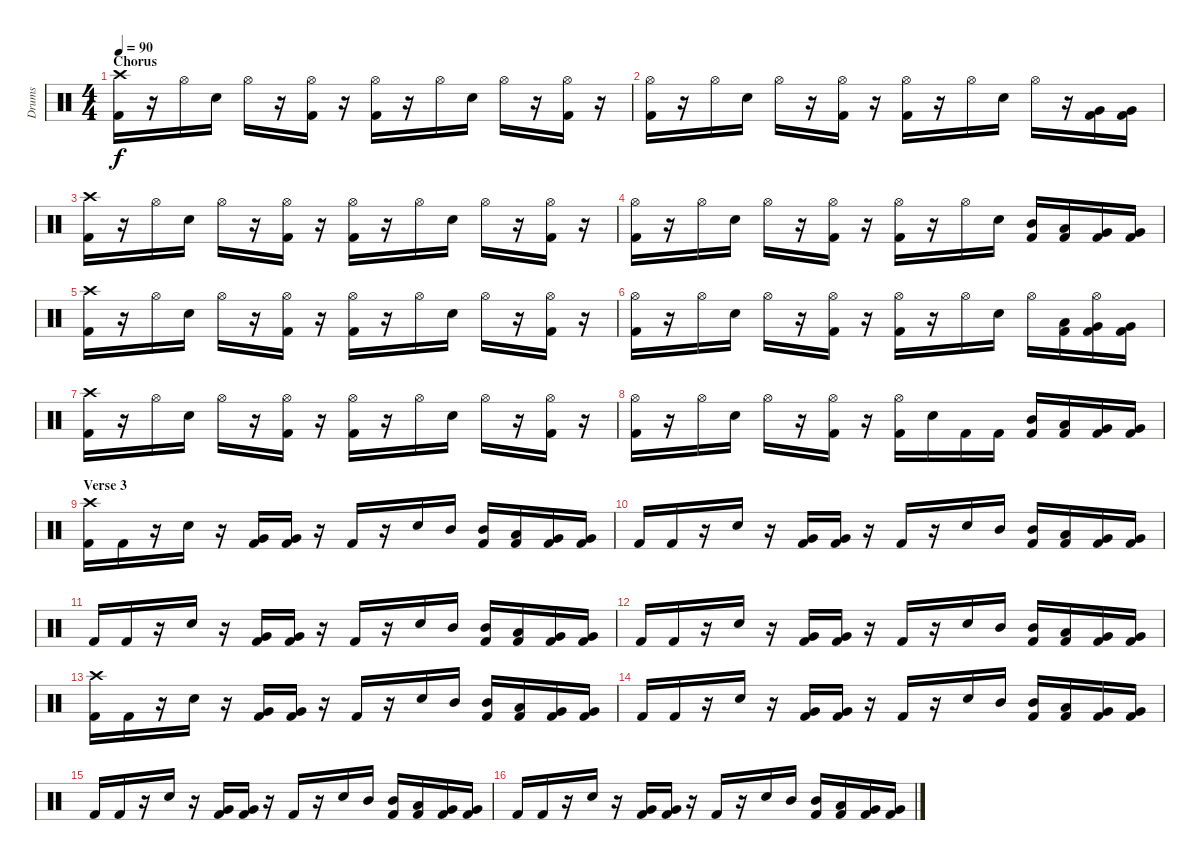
\track ("Drums" "Drums") {instrument percussion}
\staff {score}
\articulation defaults
\ts (4 4)
\section ("" "Chorus")
\tempo 90
\clef neutral
\ks c
("Kick (hit) 2" "Crash high (hit)").16{dy f} r.16 "Hi-Hat (open)".16 "Snare (hit) 2".16 "Hi-Hat (open)".16 r.16 ("Kick (hit) 2" "Hi-Hat (open)").16 r.16 ("Kick (hit) 2" "Hi-Hat (open)").16 r.16 "Hi-Hat (open)".16 "Snare (hit) 2".16 "Hi-Hat (open)".16 r.16 ("Kick (hit) 2" "Hi-Hat (open)").16 r.16 |
("Kick (hit) 2" "Hi-Hat (open)").16 r.16 "Hi-Hat (open)".16 "Snare (hit) 2".16 "Hi-Hat (open)".16 r.16 ("Kick (hit) 2" "Hi-Hat (open)").16 r.16 ("Kick (hit) 2" "Hi-Hat (open)").16 r.16 "Hi-Hat (open)".16 "Snare (hit) 2".16 "Hi-Hat (open)".16 r.16 ("Kick (hit) 2" "Very Low Tom (hit)").16 ("Kick (hit) 2" "Very Low Tom (hit)").16 |
("Kick (hit) 2" "Crash high (hit)").16 r.16 "Hi-Hat (open)".16 "Snare (hit) 2".16 "Hi-Hat (open)".16 r.16 ("Kick (hit) 2" "Hi-Hat (open)").16 r.16 ("Kick (hit) 2" "Hi-Hat (open)").16 r.16 "Hi-Hat (open)".16 "Snare (hit) 2".16 "Hi-Hat (open)".16 r.16 ("Kick (hit) 2" "Hi-Hat (open)").16 r.16 |
("Kick (hit) 2" "Hi-Hat (open)").16 r.16 "Hi-Hat (open)".16 "Snare (hit) 2".16 "Hi-Hat (open)".16 r.16 ("Kick (hit) 2" "Hi-Hat (open)").16 r.16 ("Kick (hit) 2" "Hi-Hat (open)").16 r.16 "Hi-Hat (open)".16 "Snare (hit) 2".16 ("Kick (hit) 2" "Mid Tom (hit)").16 ("Kick (hit) 2" "Low Tom (hit)").16 ("Kick (hit) 2" "Very Low Tom (hit)").16 ("Kick (hit) 2" "Very Low Tom (hit)").16 |
("Kick (hit) 2" "Crash high (hit)").16 r.16 "Hi-Hat (open)".16 "Snare (hit) 2".16 "Hi-Hat (open)".16 r.16 ("Kick (hit) 2" "Hi-Hat (open)").16 r.16 ("Kick (hit) 2" "Hi-Hat (open)").16 r.16 "Hi-Hat (open)".16 "Snare (hit) 2".16 "Hi-Hat (open)".16 r.16 ("Kick (hit) 2" "Hi-Hat (open)").16 r.16 |
("Kick (hit) 2" "Hi-Hat (open)").16 r.16 "Hi-Hat (open)".16 "Snare (hit) 2".16 "Hi-Hat (open)".16 r.16 ("Kick (hit) 2" "Hi-Hat (open)").16 r.16 ("Kick (hit) 2" "Hi-Hat (open)").16 r.16 "Hi-Hat (open)".16 "Snare (hit) 2".16 "Hi-Hat (open)".16 ("Kick (hit) 2" "Low Tom (hit)").16 ("Kick (hit) 2" "Very Low Tom (hit)" "Hi-Hat (open)").16 ("Kick (hit) 2" "Very Low Tom (hit)").16 |
("Kick (hit) 2" "Crash high (hit)").16 r.16 "Hi-Hat (open)".16 "Snare (hit) 2".16 "Hi-Hat (open)".16 r.16 ("Kick (hit) 2" "Hi-Hat (open)").16 r.16 ("Kick (hit) 2" "Hi-Hat (open)").16 r.16 "Hi-Hat (open)".16 "Snare (hit) 2".16 "Hi-Hat (open)".16 r.16 ("Kick (hit) 2" "Hi-Hat (open)").16 r.16 |
("Kick (hit) 2" "Hi-Hat (open)").16 r.16 "Hi-Hat (open)".16 "Snare (hit) 2".16 "Hi-Hat (open)".16 r.16 ("Kick (hit) 2" "Hi-Hat (open)").16 r.16 ("Kick (hit) 2" "Hi-Hat (open)").16 "Snare (hit) 2".16 "Kick (hit) 2".16 "Kick (hit) 2".16 ("Kick (hit) 2" "Mid Tom (hit)").16 ("Kick (hit) 2" "Low Tom (hit)").16 ("Kick (hit) 2" "Very Low Tom (hit)").16 ("Kick (hit) 2" "Very Low Tom (hit)").16 |
\section ("" "Verse 3")
("Kick (hit) 2" "Crash high (hit)").16 "Kick (hit) 2".16 r.16 "Snare (hit) 2".16 r.16 ("Kick (hit) 2" "Very Low Tom (hit)").16 ("Kick (hit) 2" "Very Low Tom (hit)").16 r.16 "Kick (hit) 2".16 r.16 "Snare (hit) 2".16 "Mid Tom (hit)".16 ("Kick (hit) 2" "Mid Tom (hit)").16 ("Kick (hit) 2" "Low Tom (hit)").16 ("Kick (hit) 2" "Very Low Tom (hit)").16 ("Kick (hit) 2" "Very Low Tom (hit)").16 |
"Kick (hit) 2".16 "Kick (hit) 2".16 r.16 "Snare (hit) 2".16 r.16 ("Kick (hit) 2" "Very Low Tom (hit)").16 ("Kick (hit) 2" "Very Low Tom (hit)").16 r.16 "Kick (hit) 2".16 r.16 "Snare (hit) 2".16 "Mid Tom (hit)".16 ("Kick (hit) 2" "Mid Tom (hit)").16 ("Kick (hit) 2" "Low Tom (hit)").16 ("Kick (hit) 2" "Very Low Tom (hit)").16 ("Kick (hit) 2" "Very Low Tom (hit)").16 |
"Kick (hit) 2".16 "Kick (hit) 2".16 r.16 "Snare (hit) 2".16 r.16 ("Kick (hit) 2" "Very Low Tom (hit)").16 ("Kick (hit) 2" "Very Low Tom (hit)").16 r.16 "Kick (hit) 2".16 r.16 "Snare (hit) 2".16 "Mid Tom (hit)".16 ("Kick (hit) 2" "Mid Tom (hit)").16 ("Kick (hit) 2" "Low Tom (hit)").16 ("Kick (hit) 2" "Very Low Tom (hit)").16 ("Kick (hit) 2" "Very Low Tom (hit)").16 |
"Kick (hit) 2".16 "Kick (hit) 2".16 r.16 "Snare (hit) 2".16 r.16 ("Kick (hit) 2" "Very Low Tom (hit)").16 ("Kick (hit) 2" "Very Low Tom (hit)").16 r.16 "Kick (hit) 2".16 r.16 "Snare (hit) 2".16 "Mid Tom (hit)".16 ("Kick (hit) 2" "Mid Tom (hit)").16 ("Kick (hit) 2" "Low Tom (hit)").16 ("Kick (hit) 2" "Very Low Tom (hit)").16 ("Kick (hit) 2" "Very Low Tom (hit)").16 |
("Kick (hit) 2" "Crash high (hit)").16 "Kick (hit) 2".16 r.16 "Snare (hit) 2".16 r.16 ("Kick (hit) 2" "Very Low Tom (hit)").16 ("Kick (hit) 2" "Very Low Tom (hit)").16 r.16 "Kick (hit) 2".16 r.16 "Snare (hit) 2".16 "Mid Tom (hit)".16 ("Kick (hit) 2" "Mid Tom (hit)").16 ("Kick (hit) 2" "Low Tom (hit)").16 ("Kick (hit) 2" "Very Low Tom (hit)").16 ("Kick (hit) 2" "Very Low Tom (hit)").16 |
"Kick (hit) 2".16 "Kick (hit) 2".16 r.16 "Snare (hit) 2".16 r.16 ("Kick (hit) 2" "Very Low Tom (hit)").16 ("Kick (hit) 2" "Very Low Tom (hit)").16 r.16 "Kick (hit) 2".16 r.16 "Snare (hit) 2".16 "Mid Tom (hit)".16 ("Kick (hit) 2" "Mid Tom (hit)").16 ("Kick (hit) 2" "Low Tom (hit)").16 ("Kick (hit) 2" "Very Low Tom (hit)").16 ("Kick (hit) 2" "Very Low Tom (hit)").16 |
"Kick (hit) 2".16 "Kick (hit) 2".16 r.16 "Snare (hit) 2".16 r.16 ("Kick (hit) 2" "Very Low Tom (hit)").16 ("Kick (hit) 2" "Very Low Tom (hit)").16 r.16 "Kick (hit) 2".16 r.16 "Snare (hit) 2".16 "Mid Tom (hit)".16 ("Kick (hit) 2" "Mid Tom (hit)").16 ("Kick (hit) 2" "Low Tom (hit)").16 ("Kick (hit) 2" "Very Low Tom (hit)").16 ("Kick (hit) 2" "Very Low Tom (hit)").16 |
"Kick (hit) 2".16 "Kick (hit) 2".16 r.16 "Snare (hit) 2".16 r.16 ("Kick (hit) 2" "Very Low Tom (hit)").16 ("Kick (hit) 2" "Very Low Tom (hit)").16 r.16 "Kick (hit) 2".16 r.16 "Snare (hit) 2".16 "Mid Tom (hit)".16 ("Kick (hit) 2" "Mid Tom (hit)").16 ("Kick (hit) 2" "Low Tom (hit)").16 ("Kick (hit) 2" "Very Low Tom (hit)").16 ("Kick (hit) 2" "Very Low Tom (hit)").16
